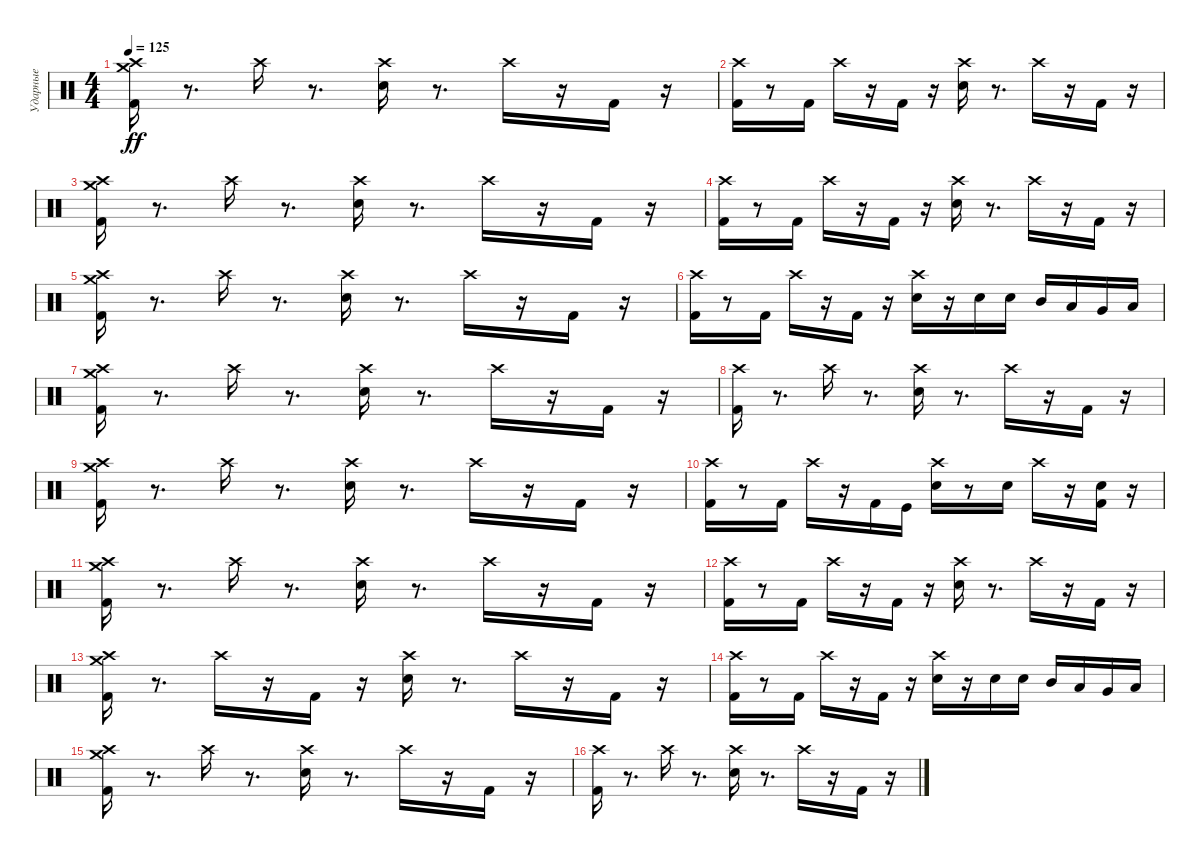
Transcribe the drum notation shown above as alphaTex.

\track ("Ударные" "Ударные") {instrument percussion}
\staff {score}
\articulation defaults
\ts (4 4)
\tempo 125
\clef neutral
\ks c
("Crash medium (hit)" "Crash high (hit)" "Kick (hit) 2").16{dy ff} r.8{d} "Crash high (hit)".16 r.8{d} ("Crash high (hit)" "Snare (hit) 2").16 r.8{d} "Crash high (hit)".16 r.16 "Kick (hit) 2".16 r.16 |
("Crash high (hit)" "Kick (hit) 2").16 r.8 "Kick (hit) 2".16 "Crash high (hit)".16 r.16 "Kick (hit) 2".16 r.16 ("Crash high (hit)" "Snare (hit) 2").16 r.8{d} "Crash high (hit)".16 r.16 "Kick (hit) 2".16 r.16 |
("Crash medium (hit)" "Crash high (hit)" "Kick (hit) 2").16 r.8{d} "Crash high (hit)".16 r.8{d} ("Crash high (hit)" "Snare (hit) 2").16 r.8{d} "Crash high (hit)".16 r.16 "Kick (hit) 2".16 r.16 |
("Crash high (hit)" "Kick (hit) 2").16 r.8 "Kick (hit) 2".16 "Crash high (hit)".16 r.16 "Kick (hit) 2".16 r.16 ("Crash high (hit)" "Snare (hit) 2").16 r.8{d} "Crash high (hit)".16 r.16 "Kick (hit) 2".16 r.16 |
("Kick (hit) 2" "Crash high (hit)" "Crash medium (hit)").16 r.8{d} "Crash high (hit)".16 r.8{d} ("Snare (hit) 2" "Crash high (hit)").16 r.8{d} "Crash high (hit)".16 r.16 "Kick (hit) 2".16 r.16 |
("Kick (hit) 2" "Crash high (hit)").16 r.8 "Kick (hit) 2".16 "Crash high (hit)".16 r.16 "Kick (hit) 2".16 r.16 ("Snare (hit) 2" "Crash high (hit)").16 r.16 "Snare (hit) 2".16 "Snare (hit) 2".16 "Mid Tom (hit)".16 "Low Tom (hit)".16 "Very Low Tom (hit)".16 "Low Floor Tom (hit)".16 |
("Crash medium (hit)" "Crash high (hit)" "Kick (hit) 2").16 r.8{d} "Crash high (hit)".16 r.8{d} ("Crash high (hit)" "Snare (hit) 2").16 r.8{d} "Crash high (hit)".16 r.16 "Kick (hit) 2".16 r.16 |
("Crash high (hit)" "Kick (hit) 2").16 r.8{d} "Crash high (hit)".16 r.8{d} ("Crash high (hit)" "Snare (hit) 2").16 r.8{d} "Crash high (hit)".16 r.16 "Kick (hit) 2".16 r.16 |
("Crash medium (hit)" "Crash high (hit)" "Kick (hit) 2").16 r.8{d} "Crash high (hit)".16 r.8{d} ("Crash high (hit)" "Snare (hit) 2").16 r.8{d} "Crash high (hit)".16 r.16 "Kick (hit) 2".16 r.16 |
("Crash high (hit)" "Kick (hit) 2").16 r.8 "Kick (hit) 2".16 "Crash high (hit)".16 r.16 "Kick (hit) 2".16 "Kick (hit)".16 ("Crash high (hit)" "Snare (hit) 2").16 r.8 "Snare (hit) 2".16 "Crash high (hit)".16 r.16 ("Snare (hit) 2" "Kick (hit) 2").16 r.16 |
("Crash medium (hit)" "Crash high (hit)" "Kick (hit) 2").16 r.8{d} "Crash high (hit)".16 r.8{d} ("Crash high (hit)" "Snare (hit) 2").16 r.8{d} "Crash high (hit)".16 r.16 "Kick (hit) 2".16 r.16 |
("Crash high (hit)" "Kick (hit) 2").16 r.8 "Kick (hit) 2".16 "Crash high (hit)".16 r.16 "Kick (hit) 2".16 r.16 ("Crash high (hit)" "Snare (hit) 2").16 r.8{d} "Crash high (hit)".16 r.16 "Kick (hit) 2".16 r.16 |
("Crash medium (hit)" "Crash high (hit)" "Kick (hit) 2").16 r.8{d} "Crash high (hit)".16 r.16 "Kick (hit) 2".16 r.16 ("Crash high (hit)" "Snare (hit) 2").16 r.8{d} "Crash high (hit)".16 r.16 "Kick (hit) 2".16 r.16 |
("Crash high (hit)" "Kick (hit) 2").16 r.8 "Kick (hit) 2".16 "Crash high (hit)".16 r.16 "Kick (hit) 2".16 r.16 ("Crash high (hit)" "Snare (hit) 2").16 r.16 "Snare (hit) 2".16 "Snare (hit) 2".16 "Mid Tom (hit)".16 "Low Tom (hit)".16 "Very Low Tom (hit)".16 "Low Floor Tom (hit)".16 |
("Crash medium (hit)" "Crash high (hit)" "Kick (hit) 2").16 r.8{d} "Crash high (hit)".16 r.8{d} ("Crash high (hit)" "Snare (hit) 2").16 r.8{d} "Crash high (hit)".16 r.16 "Kick (hit) 2".16 r.16 |
("Crash high (hit)" "Kick (hit) 2").16 r.8{d} "Crash high (hit)".16 r.8{d} ("Crash high (hit)" "Snare (hit) 2").16 r.8{d} "Crash high (hit)".16 r.16 "Kick (hit) 2".16 r.16
